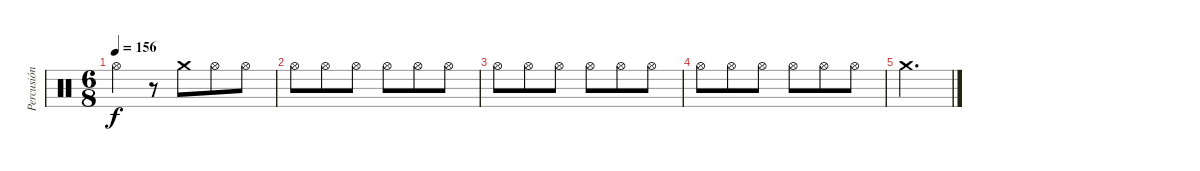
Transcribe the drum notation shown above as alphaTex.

\track ("Percusión" "Percusión") {instrument percussion}
\staff {score}
\articulation defaults
\ts (6 8)
\tempo 156
\clef neutral
\ks c "Hi-Hat (open)".4{dy f}
r.8 "Crash medium (hit)".8 "Hi-Hat (open)".8 "Hi-Hat (open)".8 |
"Hi-Hat (open)".8 "Hi-Hat (open)".8 "Hi-Hat (open)".8 "Hi-Hat (open)".8 "Hi-Hat (open)".8 "Hi-Hat (open)".8 |
"Hi-Hat (open)".8 "Hi-Hat (open)".8 "Hi-Hat (open)".8 "Hi-Hat (open)".8 "Hi-Hat (open)".8 "Hi-Hat (open)".8 |
"Hi-Hat (open)".8 "Hi-Hat (open)".8 "Hi-Hat (open)".8 "Hi-Hat (open)".8 "Hi-Hat (open)".8 "Hi-Hat (open)".8 |
"Crash medium (hit)".2{d}
